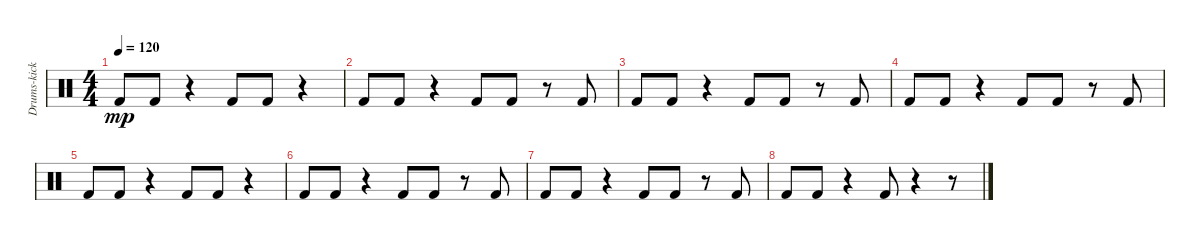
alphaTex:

\track ("Drums-kick drum 1" "Drums-kick") {instrument percussion}
\staff {score}
\articulation defaults
\ts (4 4)
\tempo 120
\clef neutral
\ks c "Kick (hit) 2".8{dy mp} "Kick (hit) 2".8
r.4 "Kick (hit) 2".8 "Kick (hit) 2".8 r.4 |
"Kick (hit) 2".8 "Kick (hit) 2".8 r.4 "Kick (hit) 2".8 "Kick (hit) 2".8 r.8 "Kick (hit) 2".8 |
"Kick (hit) 2".8 "Kick (hit) 2".8 r.4 "Kick (hit) 2".8 "Kick (hit) 2".8 r.8 "Kick (hit) 2".8 |
"Kick (hit) 2".8 "Kick (hit) 2".8 r.4 "Kick (hit) 2".8 "Kick (hit) 2".8 r.8 "Kick (hit) 2".8 |
"Kick (hit) 2".8 "Kick (hit) 2".8 r.4 "Kick (hit) 2".8 "Kick (hit) 2".8 r.4 |
"Kick (hit) 2".8 "Kick (hit) 2".8 r.4 "Kick (hit) 2".8 "Kick (hit) 2".8 r.8 "Kick (hit) 2".8 |
"Kick (hit) 2".8 "Kick (hit) 2".8 r.4 "Kick (hit) 2".8 "Kick (hit) 2".8 r.8 "Kick (hit) 2".8 |
"Kick (hit) 2".8 "Kick (hit) 2".8 r.4 "Kick (hit) 2".8 r.4 r.8
